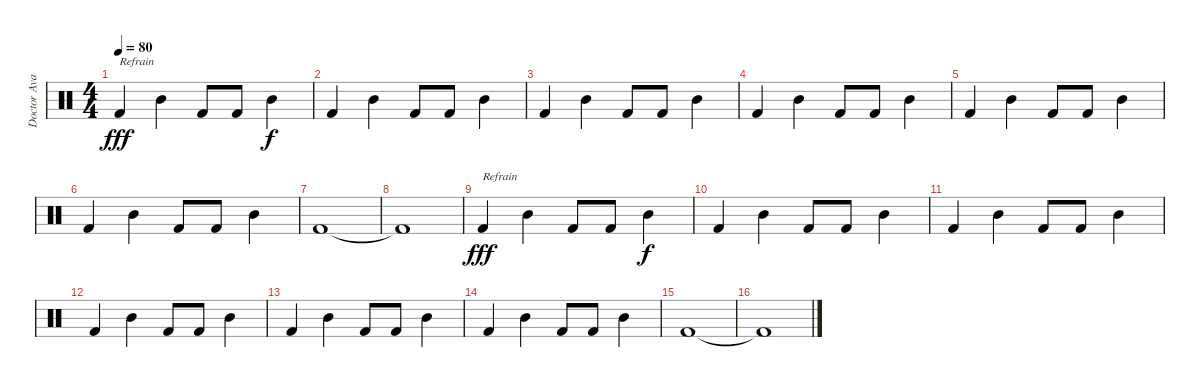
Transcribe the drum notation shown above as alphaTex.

\track ("Doctor Avalanche" "Doctor Ava") {instrument percussion}
\staff {score}
\articulation defaults
\ts (4 4)
\tempo 80
\clef neutral
\ks c "Kick (hit) 2".4{txt "Refrain" dy fff} "Mid Tom (hit)".4 "Kick (hit) 2".8 "Kick (hit) 2".8 "Mid Tom (hit)".4{dy f}
|
"Kick (hit) 2".4 "Mid Tom (hit)".4 "Kick (hit) 2".8 "Kick (hit) 2".8 "Mid Tom (hit)".4 |
"Kick (hit) 2".4 "Mid Tom (hit)".4 "Kick (hit) 2".8 "Kick (hit) 2".8 "Mid Tom (hit)".4 |
"Kick (hit) 2".4 "Mid Tom (hit)".4 "Kick (hit) 2".8 "Kick (hit) 2".8 "Mid Tom (hit)".4 |
"Kick (hit) 2".4 "Mid Tom (hit)".4 "Kick (hit) 2".8 "Kick (hit) 2".8 "Mid Tom (hit)".4 |
"Kick (hit) 2".4 "Mid Tom (hit)".4 "Kick (hit) 2".8 "Kick (hit) 2".8 "Mid Tom (hit)".4 |
"Kick (hit) 2".1 |
"Kick (hit) 2"{t}.1 |
"Kick (hit) 2".4{txt "Refrain" dy fff} "Mid Tom (hit)".4 "Kick (hit) 2".8 "Kick (hit) 2".8 "Mid Tom (hit)".4{dy f} |
"Kick (hit) 2".4 "Mid Tom (hit)".4 "Kick (hit) 2".8 "Kick (hit) 2".8 "Mid Tom (hit)".4 |
"Kick (hit) 2".4 "Mid Tom (hit)".4 "Kick (hit) 2".8 "Kick (hit) 2".8 "Mid Tom (hit)".4 |
"Kick (hit) 2".4 "Mid Tom (hit)".4 "Kick (hit) 2".8 "Kick (hit) 2".8 "Mid Tom (hit)".4 |
"Kick (hit) 2".4 "Mid Tom (hit)".4 "Kick (hit) 2".8 "Kick (hit) 2".8 "Mid Tom (hit)".4 |
"Kick (hit) 2".4 "Mid Tom (hit)".4 "Kick (hit) 2".8 "Kick (hit) 2".8 "Mid Tom (hit)".4 |
"Kick (hit) 2".1 |
"Kick (hit) 2"{t}.1
